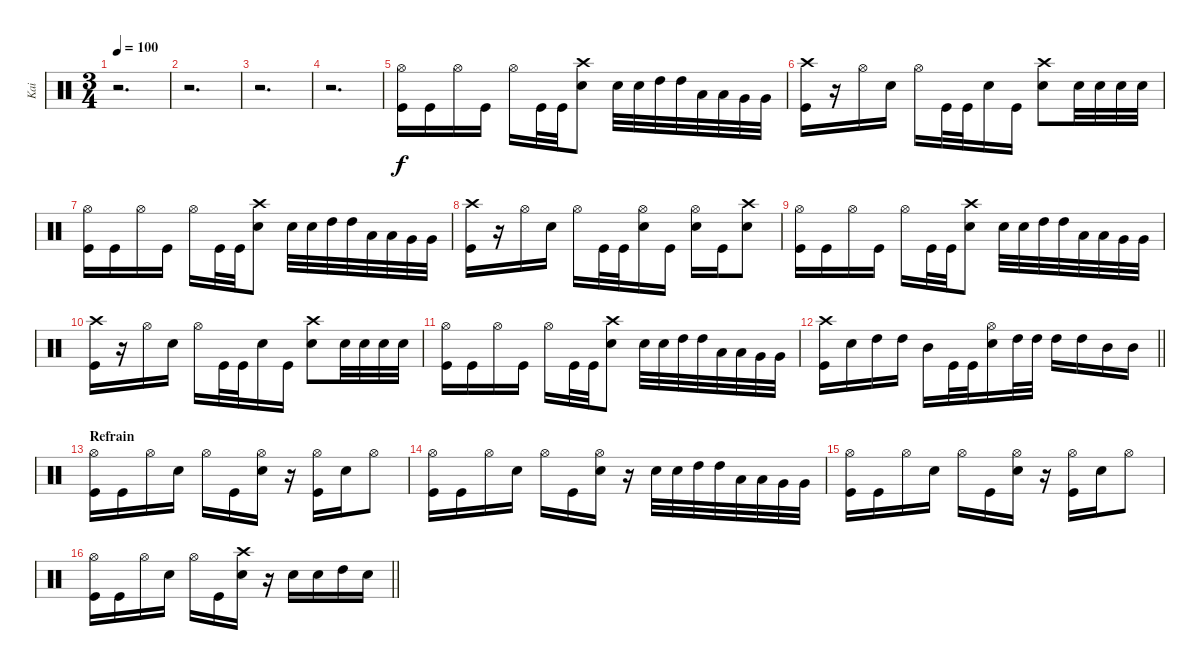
\track ("Kai" "Kai") {instrument percussion}
\staff {score}
\articulation defaults
\ts (3 4)
\tempo 100
\clef neutral
\ks c
r.2{d dy f} |
r.2{d} |
r.2{d} |
r.2{d} |
("Hi-Hat (open)" "Kick (hit)").16 "Kick (hit)".16 "Hi-Hat (open)".16 "Kick (hit)".16 "Hi-Hat (open)".16 "Kick (hit)".32 "Kick (hit)".32 ("Crash high (hit)" "Snare (hit) 2").8 "Snare (hit) 2".32 "Snare (hit) 2".32 "High Tom (hit)".32 "High Tom (hit)".32 "Low Tom (hit)".32 "Low Tom (hit)".32 "Very Low Tom (hit)".32 "Very Low Tom (hit)".32 |
("Crash high (hit)" "Kick (hit)").16 r.16 "Hi-Hat (open)".16 "Snare (hit) 2".16 "Hi-Hat (open)".16 "Kick (hit)".32 "Kick (hit)".32 "Snare (hit) 2".16 "Kick (hit)".16 ("Crash high (hit)" "Snare (hit) 2").8 "Snare (hit) 2".32 "Snare (hit) 2".32 "Snare (hit) 2".32 "Snare (hit) 2".32 |
("Hi-Hat (open)" "Kick (hit)").16 "Kick (hit)".16 "Hi-Hat (open)".16 "Kick (hit)".16 "Hi-Hat (open)".16 "Kick (hit)".32 "Kick (hit)".32 ("Crash high (hit)" "Snare (hit) 2").8 "Snare (hit) 2".32 "Snare (hit) 2".32 "High Tom (hit)".32 "High Tom (hit)".32 "Low Tom (hit)".32 "Low Tom (hit)".32 "Very Low Tom (hit)".32 "Very Low Tom (hit)".32 |
("Crash high (hit)" "Kick (hit)").16 r.16 "Hi-Hat (open)".16 "Snare (hit) 2".16 "Hi-Hat (open)".16 "Kick (hit)".32 "Kick (hit)".32 ("Hi-Hat (open)" "Snare (hit) 2").16 "Kick (hit)".16 ("Hi-Hat (open)" "Snare (hit) 2").16 "Kick (hit)".16 ("Crash high (hit)" "Snare (hit) 2").8 |
("Hi-Hat (open)" "Kick (hit)").16 "Kick (hit)".16 "Hi-Hat (open)".16 "Kick (hit)".16 "Hi-Hat (open)".16 "Kick (hit)".32 "Kick (hit)".32 ("Crash high (hit)" "Snare (hit) 2").8 "Snare (hit) 2".32 "Snare (hit) 2".32 "High Tom (hit)".32 "High Tom (hit)".32 "Low Tom (hit)".32 "Low Tom (hit)".32 "Very Low Tom (hit)".32 "Very Low Tom (hit)".32 |
("Crash high (hit)" "Kick (hit)").16 r.16 "Hi-Hat (open)".16 "Snare (hit) 2".16 "Hi-Hat (open)".16 "Kick (hit)".32 "Kick (hit)".32 "Snare (hit) 2".16 "Kick (hit)".16 ("Crash high (hit)" "Snare (hit) 2").8 "Snare (hit) 2".32 "Snare (hit) 2".32 "Snare (hit) 2".32 "Snare (hit) 2".32 |
("Hi-Hat (open)" "Kick (hit)").16 "Kick (hit)".16 "Hi-Hat (open)".16 "Kick (hit)".16 "Hi-Hat (open)".16 "Kick (hit)".32 "Kick (hit)".32 ("Crash high (hit)" "Snare (hit) 2").8 "Snare (hit) 2".32 "Snare (hit) 2".32 "High Tom (hit)".32 "High Tom (hit)".32 "Low Tom (hit)".32 "Low Tom (hit)".32 "Very Low Tom (hit)".32 "Very Low Tom (hit)".32 |
\barLineRight lightlight
("Crash high (hit)" "Kick (hit)").16 "Snare (hit) 2".16 "High Tom (hit)".16 "High Tom (hit)".16 "Mid Tom (hit)".16 "Kick (hit)".32 "Kick (hit)".32 ("Hi-Hat (open)" "Snare (hit) 2").16 "High Tom (hit)".32 "High Tom (hit)".32 "High Tom (hit)".16 "High Tom (hit)".16 "Mid Tom (hit)".16 "Mid Tom (hit)".16 |
\section ("" "Refrain")
("Hi-Hat (open)" "Kick (hit)").16 "Kick (hit)".16 "Hi-Hat (open)".16 "Snare (hit) 2".16 "Hi-Hat (open)".16 "Kick (hit)".16 ("Hi-Hat (open)" "Snare (hit) 2").16 r.16 ("Hi-Hat (open)" "Kick (hit)").16 "Snare (hit) 2".16 "Hi-Hat (open)".8 |
("Hi-Hat (open)" "Kick (hit)").16 "Kick (hit)".16 "Hi-Hat (open)".16 "Snare (hit) 2".16 "Hi-Hat (open)".16 "Kick (hit)".16 ("Hi-Hat (open)" "Snare (hit) 2").16 r.16 "Snare (hit) 2".32 "Snare (hit) 2".32 "High Tom (hit)".32 "High Tom (hit)".32 "Low Tom (hit)".32 "Low Tom (hit)".32 "Very Low Tom (hit)".32 "Very Low Tom (hit)".32 |
("Hi-Hat (open)" "Kick (hit)").16 "Kick (hit)".16 "Hi-Hat (open)".16 "Snare (hit) 2".16 "Hi-Hat (open)".16 "Kick (hit)".16 ("Hi-Hat (open)" "Snare (hit) 2").16 r.16 ("Hi-Hat (open)" "Kick (hit)").16 "Snare (hit) 2".16 "Hi-Hat (open)".8 |
\barLineRight lightlight
("Hi-Hat (open)" "Kick (hit)").16 "Kick (hit)".16 "Hi-Hat (open)".16 "Snare (hit) 2".16 "Hi-Hat (open)".16 "Kick (hit)".16 ("Crash high (hit)" "Snare (hit) 2").16 r.16 "Snare (hit) 2".16 "Snare (hit) 2".16 "High Tom (hit)".16 "Snare (hit) 2".16
